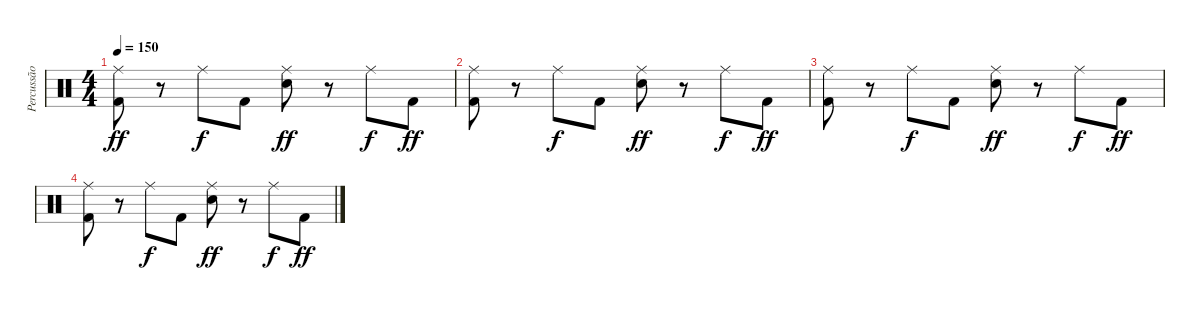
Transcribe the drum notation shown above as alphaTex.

\track ("Percussão" "Percussão") {instrument percussion}
\staff {score}
\articulation defaults
\ts (4 4)
\tempo 150
\clef neutral
\ks c
("Kick (hit) 2" "Ride (middle)").8{dy ff} r.8 "Ride (middle)".8{dy f} "Kick (hit) 2".8 ("Electric Snare (hit)" "Ride (middle)").8{dy ff} r.8 "Ride (middle)".8{dy f} "Kick (hit) 2".8{dy ff} |
("Kick (hit) 2" "Ride (middle)").8 r.8 "Ride (middle)".8{dy f} "Kick (hit) 2".8 ("Electric Snare (hit)" "Ride (middle)").8{dy ff} r.8 "Ride (middle)".8{dy f} "Kick (hit) 2".8{dy ff} |
("Kick (hit) 2" "Ride (middle)").8 r.8 "Ride (middle)".8{dy f} "Kick (hit) 2".8 ("Electric Snare (hit)" "Ride (middle)").8{dy ff} r.8 "Ride (middle)".8{dy f} "Kick (hit) 2".8{dy ff} |
("Kick (hit) 2" "Ride (middle)").8 r.8 "Ride (middle)".8{dy f} "Kick (hit) 2".8 ("Electric Snare (hit)" "Ride (middle)").8{dy ff} r.8 "Ride (middle)".8{dy f} "Kick (hit) 2".8{dy ff}
